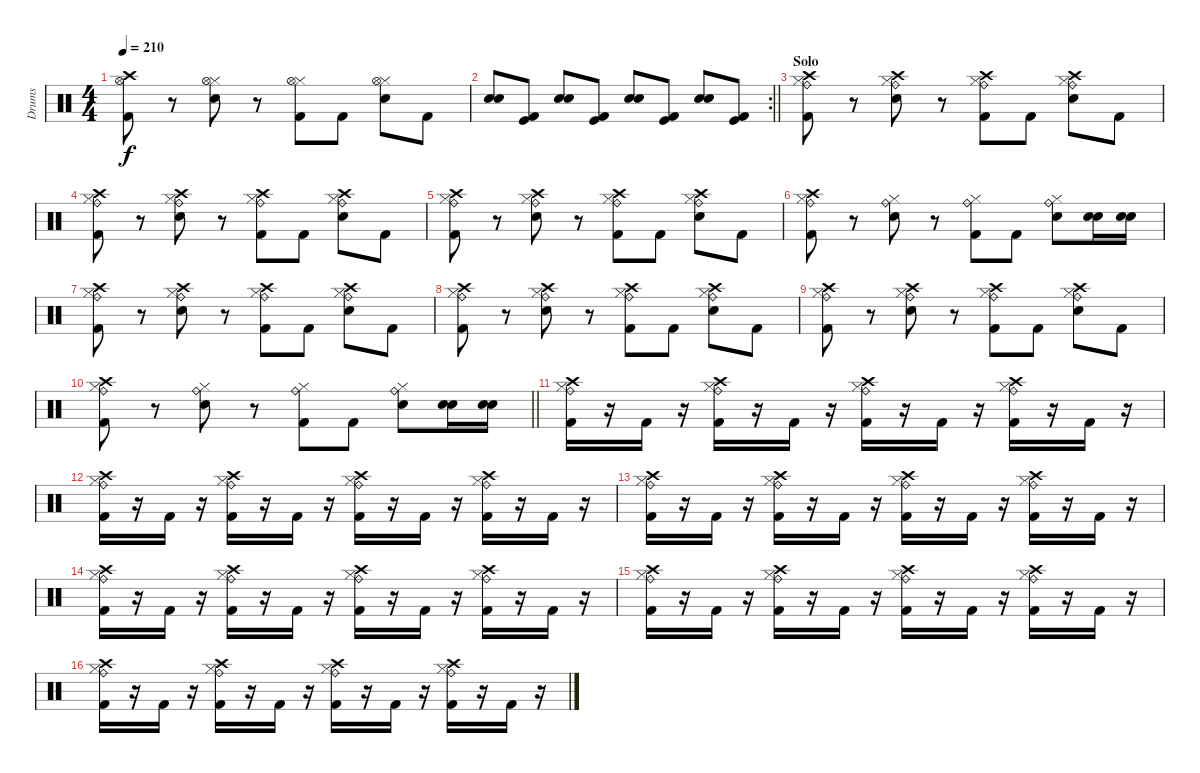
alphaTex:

\track ("Drums" "Drums") {instrument percussion}
\staff {score}
\articulation defaults
\ts (4 4)
\tempo 210
\clef neutral
\ks c
("Crash high (hit)" "Hi-Hat (open)" "Kick (hit) 2").8{dy f} r.8 ("Hi-Hat (closed)" "Hi-Hat (open)" "Electric Snare (hit)").8 r.8 ("Hi-Hat (closed)" "Hi-Hat (open)" "Kick (hit) 2").8 "Kick (hit) 2".8 ("Hi-Hat (closed)" "Hi-Hat (open)" "Electric Snare (hit)").8 "Kick (hit) 2".8 |
\rc 2
\barLineRight lightlight
("Snare (hit) 2" "Electric Snare (hit)").8 ("Kick (hit)" "Kick (hit) 2").8 ("Snare (hit) 2" "Electric Snare (hit)").8 ("Kick (hit)" "Kick (hit) 2").8 ("Snare (hit) 2" "Electric Snare (hit)").8 ("Kick (hit)" "Kick (hit) 2").8 ("Snare (hit) 2" "Electric Snare (hit)").8 ("Kick (hit)" "Kick (hit) 2").8 |
\section ("" "Solo")
("Ride (bell)" "Hi-Hat (closed)" "Crash high (hit)" "Kick (hit) 2").8 r.8 ("Ride (bell)" "Hi-Hat (closed)" "Crash high (hit)" "Electric Snare (hit)").8 r.8 ("Ride (bell)" "Hi-Hat (closed)" "Crash high (hit)" "Kick (hit) 2").8 "Kick (hit) 2".8 ("Ride (bell)" "Hi-Hat (closed)" "Crash high (hit)" "Electric Snare (hit)").8 "Kick (hit) 2".8 |
("Ride (bell)" "Hi-Hat (closed)" "Crash high (hit)" "Kick (hit) 2").8 r.8 ("Ride (bell)" "Hi-Hat (closed)" "Crash high (hit)" "Electric Snare (hit)").8 r.8 ("Ride (bell)" "Hi-Hat (closed)" "Crash high (hit)" "Kick (hit) 2").8 "Kick (hit) 2".8 ("Ride (bell)" "Hi-Hat (closed)" "Crash high (hit)" "Electric Snare (hit)").8 "Kick (hit) 2".8 |
("Ride (bell)" "Hi-Hat (closed)" "Crash high (hit)" "Kick (hit) 2").8 r.8 ("Ride (bell)" "Hi-Hat (closed)" "Crash high (hit)" "Electric Snare (hit)").8 r.8 ("Ride (bell)" "Hi-Hat (closed)" "Crash high (hit)" "Kick (hit) 2").8 "Kick (hit) 2".8 ("Ride (bell)" "Hi-Hat (closed)" "Crash high (hit)" "Electric Snare (hit)").8 "Kick (hit) 2".8 |
("Ride (bell)" "Hi-Hat (closed)" "Crash high (hit)" "Kick (hit) 2").8 r.8 ("Ride (bell)" "Hi-Hat (closed)" "Electric Snare (hit)").8 r.8 ("Ride (bell)" "Hi-Hat (closed)" "Kick (hit) 2").8 "Kick (hit) 2".8 ("Ride (bell)" "Hi-Hat (closed)" "Electric Snare (hit)").8 ("Snare (hit) 2" "Electric Snare (hit)").16 ("Snare (hit) 2" "Electric Snare (hit)").16 |
("Ride (bell)" "Hi-Hat (closed)" "Crash high (hit)" "Kick (hit) 2").8 r.8 ("Ride (bell)" "Hi-Hat (closed)" "Crash high (hit)" "Electric Snare (hit)").8 r.8 ("Ride (bell)" "Hi-Hat (closed)" "Crash high (hit)" "Kick (hit) 2").8 "Kick (hit) 2".8 ("Ride (bell)" "Hi-Hat (closed)" "Crash high (hit)" "Electric Snare (hit)").8 "Kick (hit) 2".8 |
("Ride (bell)" "Hi-Hat (closed)" "Crash high (hit)" "Kick (hit) 2").8 r.8 ("Ride (bell)" "Hi-Hat (closed)" "Crash high (hit)" "Electric Snare (hit)").8 r.8 ("Ride (bell)" "Hi-Hat (closed)" "Crash high (hit)" "Kick (hit) 2").8 "Kick (hit) 2".8 ("Ride (bell)" "Hi-Hat (closed)" "Crash high (hit)" "Electric Snare (hit)").8 "Kick (hit) 2".8 |
("Ride (bell)" "Hi-Hat (closed)" "Crash high (hit)" "Kick (hit) 2").8 r.8 ("Ride (bell)" "Hi-Hat (closed)" "Crash high (hit)" "Electric Snare (hit)").8 r.8 ("Ride (bell)" "Hi-Hat (closed)" "Crash high (hit)" "Kick (hit) 2").8 "Kick (hit) 2".8 ("Ride (bell)" "Hi-Hat (closed)" "Crash high (hit)" "Electric Snare (hit)").8 "Kick (hit) 2".8 |
\barLineRight lightlight
("Ride (bell)" "Hi-Hat (closed)" "Crash high (hit)" "Kick (hit) 2").8 r.8 ("Ride (bell)" "Hi-Hat (closed)" "Electric Snare (hit)").8 r.8 ("Ride (bell)" "Hi-Hat (closed)" "Kick (hit) 2").8 "Kick (hit) 2".8 ("Ride (bell)" "Hi-Hat (closed)" "Electric Snare (hit)").8 ("Snare (hit) 2" "Electric Snare (hit)").16 ("Snare (hit) 2" "Electric Snare (hit)").16 |
("Ride (bell)" "Hi-Hat (closed)" "Crash high (hit)" "Kick (hit) 2").16 r.16 "Kick (hit) 2".16 r.16 ("Ride (bell)" "Hi-Hat (closed)" "Crash high (hit)" "Kick (hit) 2").16 r.16 "Kick (hit) 2".16 r.16 ("Ride (bell)" "Hi-Hat (closed)" "Crash high (hit)" "Kick (hit) 2").16 r.16 "Kick (hit) 2".16 r.16 ("Ride (bell)" "Hi-Hat (closed)" "Crash high (hit)" "Kick (hit) 2").16 r.16 "Kick (hit) 2".16 r.16 |
("Ride (bell)" "Hi-Hat (closed)" "Crash high (hit)" "Kick (hit) 2").16 r.16 "Kick (hit) 2".16 r.16 ("Ride (bell)" "Hi-Hat (closed)" "Crash high (hit)" "Kick (hit) 2").16 r.16 "Kick (hit) 2".16 r.16 ("Ride (bell)" "Hi-Hat (closed)" "Crash high (hit)" "Kick (hit) 2").16 r.16 "Kick (hit) 2".16 r.16 ("Ride (bell)" "Hi-Hat (closed)" "Crash high (hit)" "Kick (hit) 2").16 r.16 "Kick (hit) 2".16 r.16 |
("Ride (bell)" "Hi-Hat (closed)" "Crash high (hit)" "Kick (hit) 2").16 r.16 "Kick (hit) 2".16 r.16 ("Ride (bell)" "Hi-Hat (closed)" "Crash high (hit)" "Kick (hit) 2").16 r.16 "Kick (hit) 2".16 r.16 ("Ride (bell)" "Hi-Hat (closed)" "Crash high (hit)" "Kick (hit) 2").16 r.16 "Kick (hit) 2".16 r.16 ("Ride (bell)" "Hi-Hat (closed)" "Crash high (hit)" "Kick (hit) 2").16 r.16 "Kick (hit) 2".16 r.16 |
("Ride (bell)" "Hi-Hat (closed)" "Crash high (hit)" "Kick (hit) 2").16 r.16 "Kick (hit) 2".16 r.16 ("Ride (bell)" "Hi-Hat (closed)" "Crash high (hit)" "Kick (hit) 2").16 r.16 "Kick (hit) 2".16 r.16 ("Ride (bell)" "Hi-Hat (closed)" "Crash high (hit)" "Kick (hit) 2").16 r.16 "Kick (hit) 2".16 r.16 ("Ride (bell)" "Hi-Hat (closed)" "Crash high (hit)" "Kick (hit) 2").16 r.16 "Kick (hit) 2".16 r.16 |
("Ride (bell)" "Hi-Hat (closed)" "Crash high (hit)" "Kick (hit) 2").16 r.16 "Kick (hit) 2".16 r.16 ("Ride (bell)" "Hi-Hat (closed)" "Crash high (hit)" "Kick (hit) 2").16 r.16 "Kick (hit) 2".16 r.16 ("Ride (bell)" "Hi-Hat (closed)" "Crash high (hit)" "Kick (hit) 2").16 r.16 "Kick (hit) 2".16 r.16 ("Ride (bell)" "Hi-Hat (closed)" "Crash high (hit)" "Kick (hit) 2").16 r.16 "Kick (hit) 2".16 r.16 |
("Ride (bell)" "Hi-Hat (closed)" "Crash high (hit)" "Kick (hit) 2").16 r.16 "Kick (hit) 2".16 r.16 ("Ride (bell)" "Hi-Hat (closed)" "Crash high (hit)" "Kick (hit) 2").16 r.16 "Kick (hit) 2".16 r.16 ("Ride (bell)" "Hi-Hat (closed)" "Crash high (hit)" "Kick (hit) 2").16 r.16 "Kick (hit) 2".16 r.16 ("Ride (bell)" "Hi-Hat (closed)" "Crash high (hit)" "Kick (hit) 2").16 r.16 "Kick (hit) 2".16 r.16
